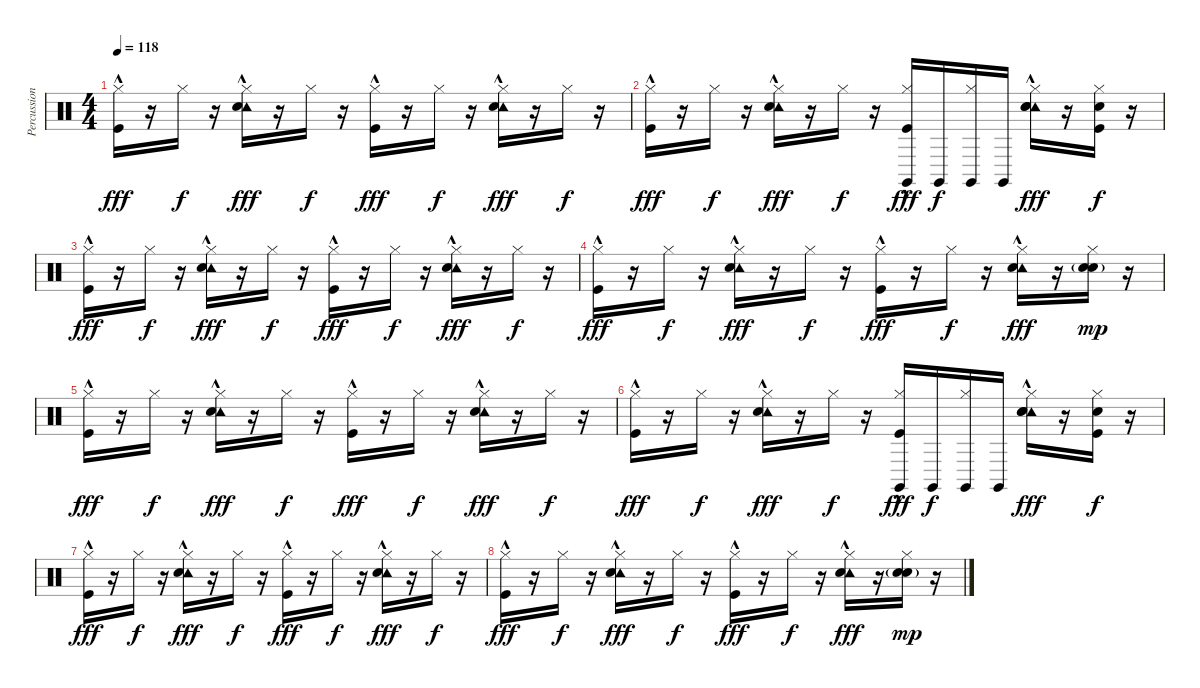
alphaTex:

\track ("Percussion" "Percussion") {instrument percussion}
\staff {score}
\articulation defaults
\ts (4 4)
\tempo 118
\clef neutral
\ks c
("Hi-Hat (closed)" "Kick (hit)"{hac}).16{dy fff} r.16 "Hi-Hat (closed)".16{dy f} r.16 ("Tambourine (hit)" "Hi-Hat (closed)" "Snare (hit) 2"{hac}).16{dy fff} r.16 "Hi-Hat (closed)".16{dy f} r.16 ("Hi-Hat (closed)" "Kick (hit)"{hac}).16{dy fff} r.16 "Hi-Hat (closed)".16{dy f} r.16 ("Tambourine (hit)" "Hi-Hat (closed)" "Snare (hit) 2"{hac}).16{dy fff} r.16 "Hi-Hat (closed)".16{dy f} r.16 |
("Hi-Hat (closed)" "Kick (hit)"{hac}).16{dy fff} r.16 "Hi-Hat (closed)".16{dy f} r.16 ("Tambourine (hit)" "Hi-Hat (closed)" "Snare (hit) 2"{hac}).16{dy fff} r.16 "Hi-Hat (closed)".16{dy f} r.16 ("Claves (hit)" "Hi-Hat (closed)" "Kick (hit)"{hac}).16{dy fff} "Claves (hit)".16{dy f} ("Claves (hit)" "Hi-Hat (closed)").16 "Claves (hit)".16 ("Tambourine (hit)" "Hi-Hat (closed)" "Hand Clap (hit)" "Snare (hit) 2"{hac}).16{dy fff} r.16 ("Hi-Hat (closed)" "Hand Clap (hit)" "Kick (hit)").16{dy f} r.16 |
("Hi-Hat (closed)" "Kick (hit)"{hac}).16{dy fff} r.16 "Hi-Hat (closed)".16{dy f} r.16 ("Tambourine (hit)" "Hi-Hat (closed)" "Snare (hit) 2"{hac}).16{dy fff} r.16 "Hi-Hat (closed)".16{dy f} r.16 ("Hi-Hat (closed)" "Kick (hit)"{hac}).16{dy fff} r.16 "Hi-Hat (closed)".16{dy f} r.16 ("Tambourine (hit)" "Hi-Hat (closed)" "Snare (hit) 2"{hac}).16{dy fff} r.16 "Hi-Hat (closed)".16{dy f} r.16 |
("Hi-Hat (closed)" "Kick (hit)"{hac}).16{dy fff} r.16 "Hi-Hat (closed)".16{dy f} r.16 ("Tambourine (hit)" "Hi-Hat (closed)" "Snare (hit) 2"{hac}).16{dy fff} r.16 "Hi-Hat (closed)".16{dy f} r.16 ("Hi-Hat (closed)" "Kick (hit)"{hac}).16{dy fff} r.16 "Hi-Hat (closed)".16{dy f} r.16 ("Tambourine (hit)" "Hi-Hat (closed)" "Snare (hit) 2"{hac}).16{dy fff} r.16 ("Hi-Hat (closed)" "Hand Clap (hit)" "Snare (hit) 2"{g}).16{dy mp} r.16 |
("Hi-Hat (closed)" "Kick (hit)"{hac}).16{dy fff} r.16 "Hi-Hat (closed)".16{dy f} r.16 ("Tambourine (hit)" "Hi-Hat (closed)" "Snare (hit) 2"{hac}).16{dy fff} r.16 "Hi-Hat (closed)".16{dy f} r.16 ("Hi-Hat (closed)" "Kick (hit)"{hac}).16{dy fff} r.16 "Hi-Hat (closed)".16{dy f} r.16 ("Tambourine (hit)" "Hi-Hat (closed)" "Snare (hit) 2"{hac}).16{dy fff} r.16 "Hi-Hat (closed)".16{dy f} r.16 |
("Hi-Hat (closed)" "Kick (hit)"{hac}).16{dy fff} r.16 "Hi-Hat (closed)".16{dy f} r.16 ("Tambourine (hit)" "Hi-Hat (closed)" "Snare (hit) 2"{hac}).16{dy fff} r.16 "Hi-Hat (closed)".16{dy f} r.16 ("Claves (hit)" "Hi-Hat (closed)" "Kick (hit)"{hac}).16{dy fff} "Claves (hit)".16{dy f} ("Claves (hit)" "Hi-Hat (closed)").16 "Claves (hit)".16 ("Tambourine (hit)" "Hi-Hat (closed)" "Hand Clap (hit)" "Snare (hit) 2"{hac}).16{dy fff} r.16 ("Hi-Hat (closed)" "Hand Clap (hit)" "Kick (hit)").16{dy f} r.16 |
("Hi-Hat (closed)" "Kick (hit)"{hac}).16{dy fff} r.16 "Hi-Hat (closed)".16{dy f} r.16 ("Tambourine (hit)" "Hi-Hat (closed)" "Snare (hit) 2"{hac}).16{dy fff} r.16 "Hi-Hat (closed)".16{dy f} r.16 ("Hi-Hat (closed)" "Kick (hit)"{hac}).16{dy fff} r.16 "Hi-Hat (closed)".16{dy f} r.16 ("Tambourine (hit)" "Hi-Hat (closed)" "Snare (hit) 2"{hac}).16{dy fff} r.16 "Hi-Hat (closed)".16{dy f} r.16 |
("Hi-Hat (closed)" "Kick (hit)"{hac}).16{dy fff} r.16 "Hi-Hat (closed)".16{dy f} r.16 ("Tambourine (hit)" "Hi-Hat (closed)" "Snare (hit) 2"{hac}).16{dy fff} r.16 "Hi-Hat (closed)".16{dy f} r.16 ("Hi-Hat (closed)" "Kick (hit)"{hac}).16{dy fff} r.16 "Hi-Hat (closed)".16{dy f} r.16 ("Tambourine (hit)" "Hi-Hat (closed)" "Snare (hit) 2"{hac}).16{dy fff} r.16 ("Hi-Hat (closed)" "Hand Clap (hit)" "Snare (hit) 2"{g}).16{dy mp} r.16
